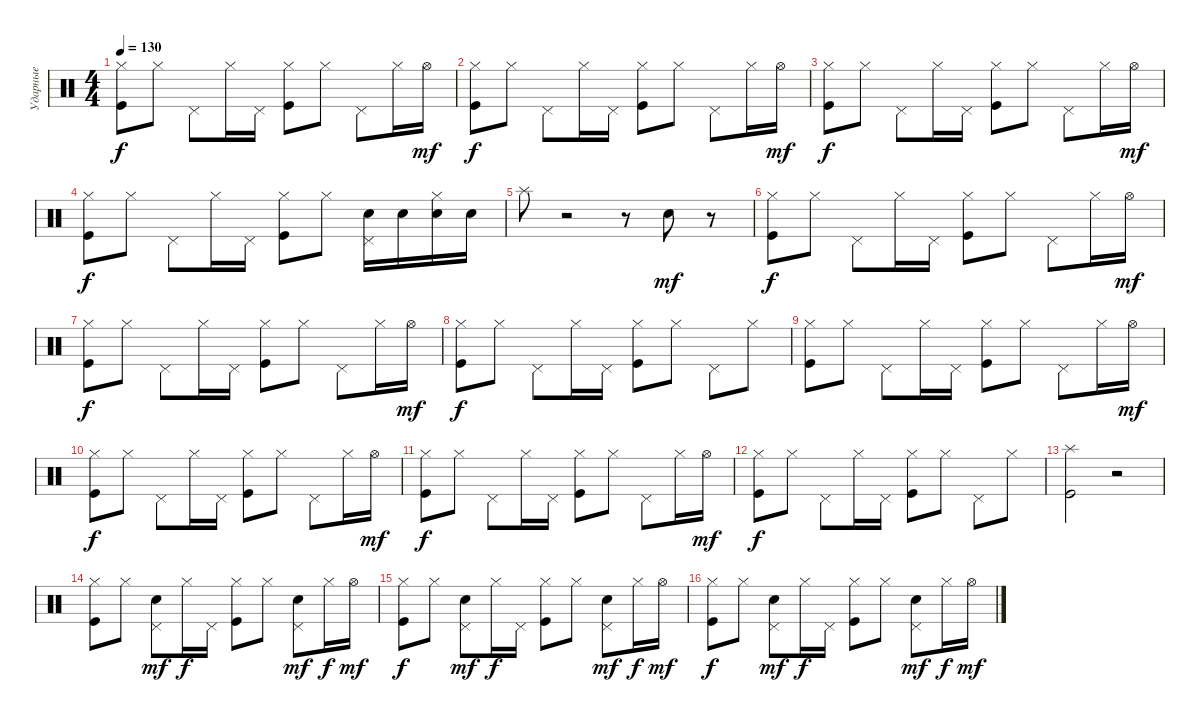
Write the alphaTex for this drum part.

\track ("Ударные" "Ударные") {instrument percussion}
\staff {score}
\articulation defaults
\ts (4 4)
\tempo 130
\clef neutral
\ks c
("Hi-Hat (closed)" "Kick (hit)").8{dy f} "Hi-Hat (closed)".8 "Pedal Hi-Hat (hit)".8 "Hi-Hat (closed)".16 "Pedal Hi-Hat (hit)".16 ("Hi-Hat (closed)" "Kick (hit)").8 "Hi-Hat (closed)".8 "Pedal Hi-Hat (hit)".8 "Hi-Hat (closed)".16 "Hi-Hat (open)".16{dy mf} |
("Hi-Hat (closed)" "Kick (hit)").8{dy f} "Hi-Hat (closed)".8 "Pedal Hi-Hat (hit)".8 "Hi-Hat (closed)".16 "Pedal Hi-Hat (hit)".16 ("Hi-Hat (closed)" "Kick (hit)").8 "Hi-Hat (closed)".8 "Pedal Hi-Hat (hit)".8 "Hi-Hat (closed)".16 "Hi-Hat (open)".16{dy mf} |
("Hi-Hat (closed)" "Kick (hit)").8{dy f} "Hi-Hat (closed)".8 "Pedal Hi-Hat (hit)".8 "Hi-Hat (closed)".16 "Pedal Hi-Hat (hit)".16 ("Hi-Hat (closed)" "Kick (hit)").8 "Hi-Hat (closed)".8 "Pedal Hi-Hat (hit)".8 "Hi-Hat (closed)".16 "Hi-Hat (open)".16{dy mf} |
("Hi-Hat (closed)" "Kick (hit)").8{dy f} "Hi-Hat (closed)".8 "Pedal Hi-Hat (hit)".8 "Hi-Hat (closed)".16 "Pedal Hi-Hat (hit)".16 ("Hi-Hat (closed)" "Kick (hit)").8 "Hi-Hat (closed)".8 ("Pedal Hi-Hat (hit)" "Electric Snare (hit)").16 "Electric Snare (hit)".16 ("Hi-Hat (closed)" "Electric Snare (hit)").16 "Electric Snare (hit)".16 |
"Splash (hit)".8 r.2 r.8 "Metronome (bell)".8{dy mf} r.8 |
("Hi-Hat (closed)" "Kick (hit)").8{dy f} "Hi-Hat (closed)".8 "Pedal Hi-Hat (hit)".8 "Hi-Hat (closed)".16 "Pedal Hi-Hat (hit)".16 ("Hi-Hat (closed)" "Kick (hit)").8 "Hi-Hat (closed)".8 "Pedal Hi-Hat (hit)".8 "Hi-Hat (closed)".16 "Hi-Hat (open)".16{dy mf} |
("Hi-Hat (closed)" "Kick (hit)").8{dy f} "Hi-Hat (closed)".8 "Pedal Hi-Hat (hit)".8 "Hi-Hat (closed)".16 "Pedal Hi-Hat (hit)".16 ("Hi-Hat (closed)" "Kick (hit)").8 "Hi-Hat (closed)".8 "Pedal Hi-Hat (hit)".8 "Hi-Hat (closed)".16 "Hi-Hat (open)".16{dy mf} |
("Hi-Hat (closed)" "Kick (hit)").8{dy f} "Hi-Hat (closed)".8 "Pedal Hi-Hat (hit)".8 "Hi-Hat (closed)".16 "Pedal Hi-Hat (hit)".16 ("Hi-Hat (closed)" "Kick (hit)").8 "Hi-Hat (closed)".8 "Pedal Hi-Hat (hit)".8 "Hi-Hat (closed)".8 |
("Hi-Hat (closed)" "Kick (hit)").8 "Hi-Hat (closed)".8 "Pedal Hi-Hat (hit)".8 "Hi-Hat (closed)".16 "Pedal Hi-Hat (hit)".16 ("Hi-Hat (closed)" "Kick (hit)").8 "Hi-Hat (closed)".8 "Pedal Hi-Hat (hit)".8 "Hi-Hat (closed)".16 "Hi-Hat (open)".16{dy mf} |
("Hi-Hat (closed)" "Kick (hit)").8{dy f} "Hi-Hat (closed)".8 "Pedal Hi-Hat (hit)".8 "Hi-Hat (closed)".16 "Pedal Hi-Hat (hit)".16 ("Hi-Hat (closed)" "Kick (hit)").8 "Hi-Hat (closed)".8 "Pedal Hi-Hat (hit)".8 "Hi-Hat (closed)".16 "Hi-Hat (open)".16{dy mf} |
("Hi-Hat (closed)" "Kick (hit)").8{dy f} "Hi-Hat (closed)".8 "Pedal Hi-Hat (hit)".8 "Hi-Hat (closed)".16 "Pedal Hi-Hat (hit)".16 ("Hi-Hat (closed)" "Kick (hit)").8 "Hi-Hat (closed)".8 "Pedal Hi-Hat (hit)".8 "Hi-Hat (closed)".16 "Hi-Hat (open)".16{dy mf} |
("Hi-Hat (closed)" "Kick (hit)").8{dy f} "Hi-Hat (closed)".8 "Pedal Hi-Hat (hit)".8 "Hi-Hat (closed)".16 "Pedal Hi-Hat (hit)".16 ("Hi-Hat (closed)" "Kick (hit)").8 "Hi-Hat (closed)".8 "Pedal Hi-Hat (hit)".8 "Hi-Hat (closed)".8 |
("Splash (hit)" "Kick (hit)").2 r.2 |
("Hi-Hat (closed)" "Kick (hit)").8 "Hi-Hat (closed)".8 ("Pedal Hi-Hat (hit)" "Metronome (bell)").8{dy mf} "Hi-Hat (closed)".16{dy f} "Pedal Hi-Hat (hit)".16 ("Hi-Hat (closed)" "Kick (hit)").8 "Hi-Hat (closed)".8 ("Pedal Hi-Hat (hit)" "Metronome (bell)").8{dy mf} "Hi-Hat (closed)".16{dy f} "Hi-Hat (open)".16{dy mf} |
("Hi-Hat (closed)" "Kick (hit)").8{dy f} "Hi-Hat (closed)".8 ("Pedal Hi-Hat (hit)" "Metronome (bell)").8{dy mf} "Hi-Hat (closed)".16{dy f} "Pedal Hi-Hat (hit)".16 ("Hi-Hat (closed)" "Kick (hit)").8 "Hi-Hat (closed)".8 ("Pedal Hi-Hat (hit)" "Metronome (bell)").8{dy mf} "Hi-Hat (closed)".16{dy f} "Hi-Hat (open)".16{dy mf} |
("Hi-Hat (closed)" "Kick (hit)").8{dy f} "Hi-Hat (closed)".8 ("Pedal Hi-Hat (hit)" "Metronome (bell)").8{dy mf} "Hi-Hat (closed)".16{dy f} "Pedal Hi-Hat (hit)".16 ("Hi-Hat (closed)" "Kick (hit)").8 "Hi-Hat (closed)".8 ("Pedal Hi-Hat (hit)" "Metronome (bell)").8{dy mf} "Hi-Hat (closed)".16{dy f} "Hi-Hat (open)".16{dy mf}
